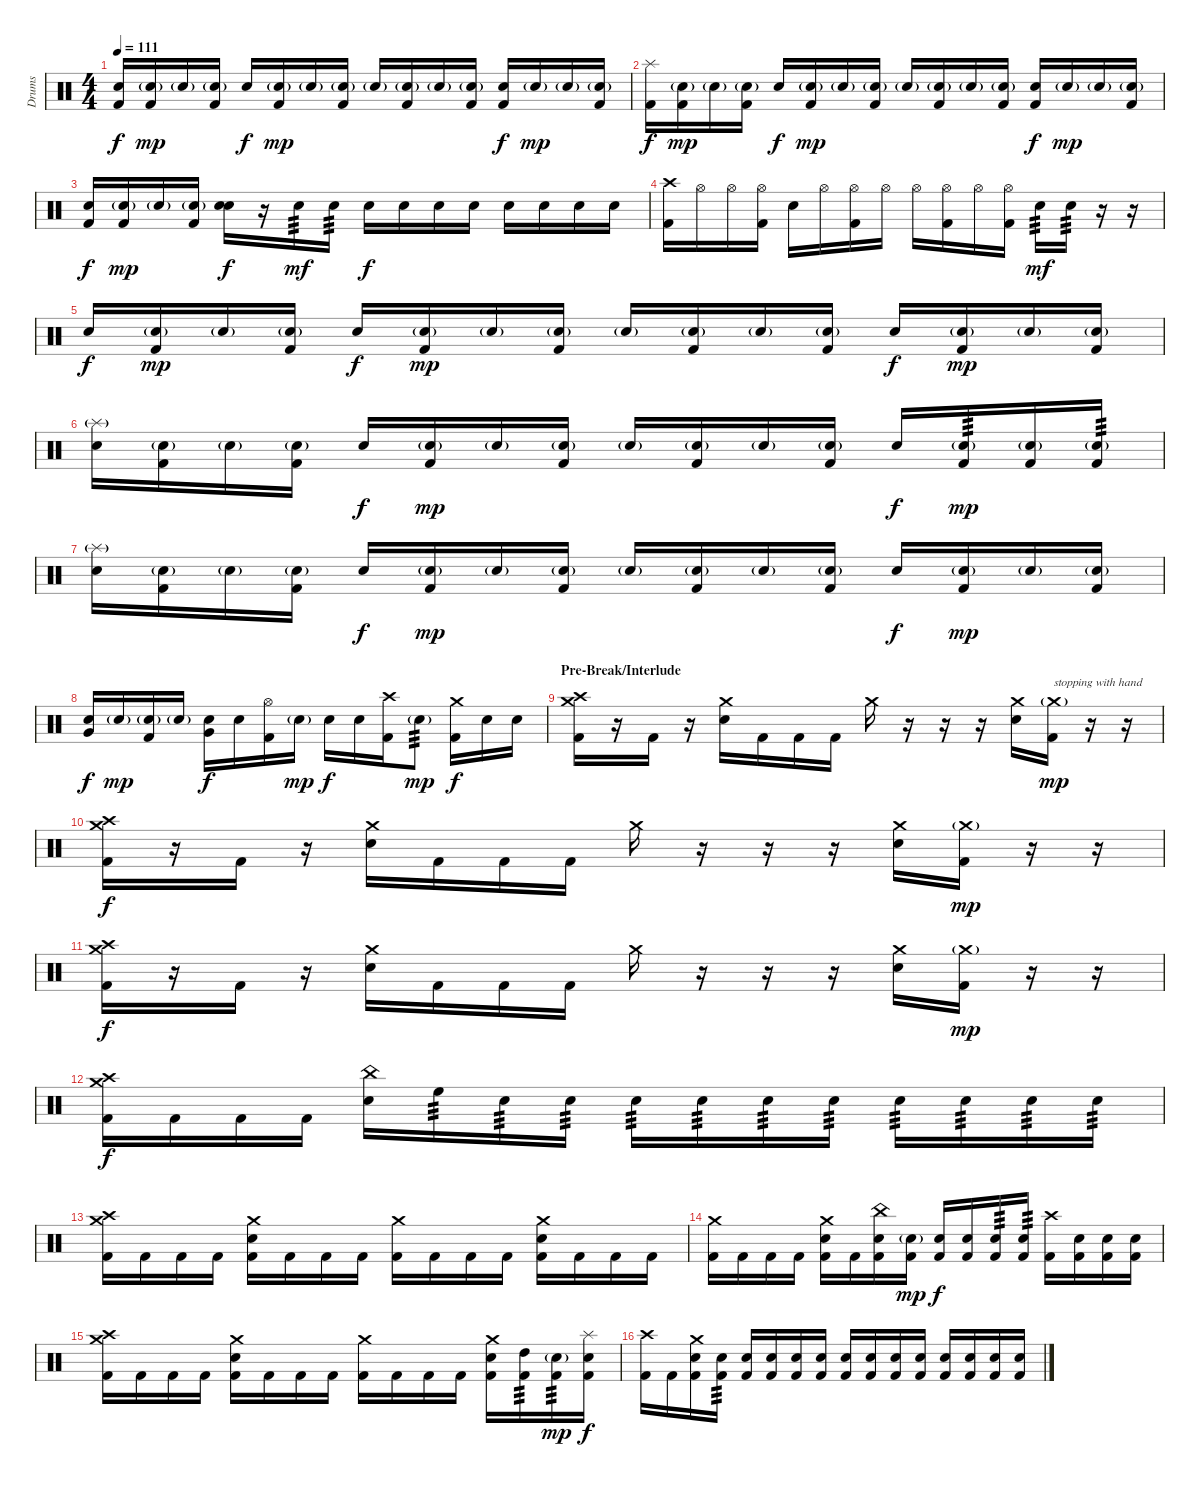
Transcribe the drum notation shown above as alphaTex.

\track ("Drums" "Drums") {instrument percussion}
\staff {score}
\articulation defaults
\ts (4 4)
\tempo 111
\clef neutral
\ks c
("Electric Snare (hit)" "Kick (hit) 2").16{dy f} ("Electric Snare (hit)"{g} "Kick (hit) 2").16{dy mp} "Electric Snare (hit)"{g}.16 ("Electric Snare (hit)"{g} "Kick (hit) 2").16 "Electric Snare (hit)".16{dy f} ("Electric Snare (hit)"{g} "Kick (hit) 2").16{dy mp} "Electric Snare (hit)"{g}.16 ("Electric Snare (hit)"{g} "Kick (hit) 2").16 "Electric Snare (hit)"{g}.16 ("Electric Snare (hit)"{g} "Kick (hit) 2").16 "Electric Snare (hit)"{g}.16 ("Electric Snare (hit)"{g} "Kick (hit) 2").16 ("Electric Snare (hit)" "Kick (hit) 2").16{dy f} "Electric Snare (hit)"{g}.16{dy mp} "Electric Snare (hit)"{g}.16 ("Electric Snare (hit)"{g} "Kick (hit) 2").16 |
("Splash (hit)" "Kick (hit) 2").16{dy f} ("Electric Snare (hit)"{g} "Kick (hit) 2").16{dy mp} "Electric Snare (hit)"{g}.16 ("Electric Snare (hit)"{g} "Kick (hit) 2").16 "Electric Snare (hit)".16{dy f} ("Electric Snare (hit)"{g} "Kick (hit) 2").16{dy mp} "Electric Snare (hit)"{g}.16 ("Electric Snare (hit)"{g} "Kick (hit) 2").16 "Electric Snare (hit)"{g}.16 ("Electric Snare (hit)"{g} "Kick (hit) 2").16 "Electric Snare (hit)"{g}.16 ("Electric Snare (hit)"{g} "Kick (hit) 2").16 ("Electric Snare (hit)" "Kick (hit) 2").16{dy f} "Electric Snare (hit)"{g}.16{dy mp} "Electric Snare (hit)"{g}.16 ("Electric Snare (hit)"{g} "Kick (hit) 2").16 |
("Electric Snare (hit)" "Kick (hit) 2").16{dy f} ("Electric Snare (hit)"{g} "Kick (hit) 2").16{dy mp} "Electric Snare (hit)"{g}.16 ("Electric Snare (hit)"{g} "Kick (hit) 2").16 ("Electric Snare (hit)" "Electric Snare (hit)").16{dy f} r.16 "Electric Snare (hit)".16{tp 3 dy mf} "Electric Snare (hit)".16{tp 3} "Electric Snare (hit)".16{dy f} "Electric Snare (hit)".16 "Electric Snare (hit)".16 "Electric Snare (hit)".16 "Electric Snare (hit)".16 "Electric Snare (hit)".16 "Electric Snare (hit)".16 "Electric Snare (hit)".16 |
("Crash high (hit)" "Kick (hit) 2").16 "Hi-Hat (open)".16 "Hi-Hat (open)".16 ("Hi-Hat (open)" "Kick (hit) 2").16 "Electric Snare (hit)".16 "Hi-Hat (open)".16 ("Hi-Hat (open)" "Kick (hit) 2").16 "Hi-Hat (open)".16 "Hi-Hat (open)".16 ("Hi-Hat (open)" "Kick (hit) 2").16 "Hi-Hat (open)".16 ("Hi-Hat (open)" "Kick (hit) 2").16 "Electric Snare (hit)".16{tp 3 dy mf} "Electric Snare (hit)".16{tp 3} r.16 r.16 |
"Electric Snare (hit)".16{dy f} ("Electric Snare (hit)"{g} "Kick (hit) 2").16{dy mp} "Electric Snare (hit)"{g}.16 ("Electric Snare (hit)"{g} "Kick (hit) 2").16 "Electric Snare (hit)".16{dy f} ("Electric Snare (hit)"{g} "Kick (hit) 2").16{dy mp} "Electric Snare (hit)"{g}.16 ("Electric Snare (hit)"{g} "Kick (hit) 2").16 "Electric Snare (hit)"{g}.16 ("Electric Snare (hit)"{g} "Kick (hit) 2").16 "Electric Snare (hit)"{g}.16 ("Electric Snare (hit)"{g} "Kick (hit) 2").16 "Electric Snare (hit)".16{dy f} ("Electric Snare (hit)"{g} "Kick (hit) 2").16{dy mp} "Electric Snare (hit)"{g}.16 ("Electric Snare (hit)"{g} "Kick (hit) 2").16 |
("Splash (hit)"{g} "Electric Snare (hit)").16 ("Electric Snare (hit)"{g} "Kick (hit) 2").16 "Electric Snare (hit)"{g}.16 ("Electric Snare (hit)"{g} "Kick (hit) 2").16 "Electric Snare (hit)".16{dy f} ("Electric Snare (hit)"{g} "Kick (hit) 2").16{dy mp} "Electric Snare (hit)"{g}.16 ("Electric Snare (hit)"{g} "Kick (hit) 2").16 "Electric Snare (hit)"{g}.16 ("Electric Snare (hit)"{g} "Kick (hit) 2").16 "Electric Snare (hit)"{g}.16 ("Electric Snare (hit)"{g} "Kick (hit) 2").16 "Electric Snare (hit)".16{dy f} ("Electric Snare (hit)"{g} "Kick (hit) 2").16{tp 3 dy mp} ("Electric Snare (hit)"{g} "Kick (hit) 2").16 ("Electric Snare (hit)"{g} "Kick (hit) 2").16{tp 3} |
("Splash (hit)"{g} "Electric Snare (hit)").16 ("Electric Snare (hit)"{g} "Kick (hit) 2").16 "Electric Snare (hit)"{g}.16 ("Electric Snare (hit)"{g} "Kick (hit) 2").16 "Electric Snare (hit)".16{dy f} ("Electric Snare (hit)"{g} "Kick (hit) 2").16{dy mp} "Electric Snare (hit)"{g}.16 ("Electric Snare (hit)"{g} "Kick (hit) 2").16 "Electric Snare (hit)"{g}.16 ("Electric Snare (hit)"{g} "Kick (hit) 2").16 "Electric Snare (hit)"{g}.16 ("Electric Snare (hit)"{g} "Kick (hit) 2").16 "Electric Snare (hit)".16{dy f} ("Electric Snare (hit)"{g} "Kick (hit) 2").16{dy mp} "Electric Snare (hit)"{g}.16 ("Electric Snare (hit)"{g} "Kick (hit) 2").16 |
("Electric Snare (hit)" "Very Low Tom (hit)").16{dy f} "Electric Snare (hit)"{g}.16{dy mp} ("Electric Snare (hit)"{g} "Kick (hit) 2").16 "Electric Snare (hit)"{g}.16 ("Electric Snare (hit)" "Very Low Tom (hit)").16{dy f} "Electric Snare (hit)".16 ("Hi-Hat (open)" "Kick (hit) 2").16 "Electric Snare (hit)"{g}.16{dy mp} "Electric Snare (hit)".16{dy f} "Electric Snare (hit)".16 ("Crash high (hit)" "Kick (hit) 2").16 "Electric Snare (hit)"{g}.8{tp 3 dy mp} ("Crash medium (hit)" "Kick (hit) 2").16{dy f} "Electric Snare (hit)".16 "Electric Snare (hit)".16 |
\section ("" "Pre-Break/Interlude")
("Crash medium (hit)" "Crash high (hit)" "Kick (hit) 2").16 r.16 "Kick (hit) 2".16 r.16 ("Crash medium (hit)" "Electric Snare (hit)").16 "Kick (hit) 2".16 "Kick (hit) 2".16 "Kick (hit) 2".16 "Crash medium (hit)".16 r.16 r.16 r.16 ("Crash medium (hit)" "Electric Snare (hit)").16 ("Crash medium (hit)"{g} "Kick (hit) 2").16{txt "stopping with hand" dy mp} r.16{volume 0} r.16 |
("Crash medium (hit)" "Crash high (hit)" "Kick (hit) 2").16{dy f volume 14} r.16 "Kick (hit) 2".16 r.16 ("Crash medium (hit)" "Electric Snare (hit)").16 "Kick (hit) 2".16 "Kick (hit) 2".16 "Kick (hit) 2".16 "Crash medium (hit)".16 r.16 r.16 r.16 ("Crash medium (hit)" "Electric Snare (hit)").16 ("Crash medium (hit)"{g} "Kick (hit) 2").16{dy mp} r.16{volume 0} r.16 |
("Crash medium (hit)" "Crash high (hit)" "Kick (hit) 2").16{dy f volume 14} r.16 "Kick (hit) 2".16 r.16 ("Crash medium (hit)" "Electric Snare (hit)").16 "Kick (hit) 2".16 "Kick (hit) 2".16 "Kick (hit) 2".16 "Crash medium (hit)".16 r.16 r.16 r.16 ("Crash medium (hit)" "Electric Snare (hit)").16 ("Crash medium (hit)"{g} "Kick (hit) 2").16{dy mp} r.16{volume 0} r.16 |
("Crash medium (hit)" "Crash high (hit)" "Kick (hit) 2").16{dy f volume 14} "Kick (hit) 2".16 "Kick (hit) 2".16 "Kick (hit) 2".16 ("China (hit)" "Electric Snare (hit)").16 "High Floor Tom (hit)".16{tp 3} "Electric Snare (hit)".16{tp 3} "Electric Snare (hit)".16{tp 3} "Electric Snare (hit)".16{tp 3} "Electric Snare (hit)".16{tp 3} "Electric Snare (hit)".16{tp 3} "Electric Snare (hit)".16{tp 3} "Electric Snare (hit)".16{tp 3} "Electric Snare (hit)".16{tp 3} "Electric Snare (hit)".16{tp 3} "Electric Snare (hit)".16{tp 3} |
("Crash medium (hit)" "Crash high (hit)" "Kick (hit) 2").16 "Kick (hit) 2".16 "Kick (hit) 2".16 "Kick (hit) 2".16 ("Crash medium (hit)" "Electric Snare (hit)" "Kick (hit) 2").16 "Kick (hit) 2".16 "Kick (hit) 2".16 "Kick (hit) 2".16 ("Crash medium (hit)" "Kick (hit) 2").16 "Kick (hit) 2".16 "Kick (hit) 2".16 "Kick (hit) 2".16 ("Crash medium (hit)" "Electric Snare (hit)" "Kick (hit) 2").16 "Kick (hit) 2".16 "Kick (hit) 2".16 "Kick (hit) 2".16 |
("Crash medium (hit)" "Kick (hit) 2").16 "Kick (hit) 2".16 "Kick (hit) 2".16 "Kick (hit) 2".16 ("Crash medium (hit)" "Electric Snare (hit)" "Kick (hit) 2").16 "Kick (hit) 2".16 ("China (hit)" "Electric Snare (hit)" "Kick (hit) 2").16 ("Electric Snare (hit)"{g} "Kick (hit) 2").16{dy mp} ("Electric Snare (hit)" "Kick (hit) 2").16{dy f} ("Electric Snare (hit)" "Kick (hit) 2").16 ("Electric Snare (hit)" "Kick (hit) 2").16{tp 3} ("Electric Snare (hit)" "Kick (hit) 2").16{tp 3} ("Crash high (hit)" "Kick (hit) 2").16 ("Electric Snare (hit)" "Kick (hit) 2").16 ("Electric Snare (hit)" "Kick (hit) 2").16 ("Electric Snare (hit)" "Kick (hit) 2").16 |
("Crash medium (hit)" "Crash high (hit)" "Kick (hit) 2").16 "Kick (hit) 2".16 "Kick (hit) 2".16 "Kick (hit) 2".16 ("Crash medium (hit)" "Electric Snare (hit)" "Kick (hit) 2").16 "Kick (hit) 2".16 "Kick (hit) 2".16 "Kick (hit) 2".16 ("Crash medium (hit)" "Kick (hit) 2").16 "Kick (hit) 2".16 "Kick (hit) 2".16 "Kick (hit) 2".16 ("Crash medium (hit)" "Electric Snare (hit)" "Kick (hit) 2").16 ("High Tom (hit)" "Kick (hit) 2").16{tp 3} ("Electric Snare (hit)"{g} "Kick (hit) 2").16{tp 3 dy mp} ("Splash (hit)" "Electric Snare (hit)" "Kick (hit) 2").16{dy f} |
("Crash high (hit)" "Kick (hit) 2").16 "Kick (hit) 2".16 ("Crash medium (hit)" "Electric Snare (hit)" "Kick (hit) 2").16 ("Electric Snare (hit)" "Kick (hit) 2").16{tp 3} ("Electric Snare (hit)" "Kick (hit) 2").16 ("Electric Snare (hit)" "Kick (hit) 2").16 ("Electric Snare (hit)" "Kick (hit) 2").16 ("Electric Snare (hit)" "Kick (hit) 2").16 ("Electric Snare (hit)" "Kick (hit) 2").16 ("Electric Snare (hit)" "Kick (hit) 2").16 ("Electric Snare (hit)" "Kick (hit) 2").16 ("Electric Snare (hit)" "Kick (hit) 2").16 ("Electric Snare (hit)" "Kick (hit) 2").16 ("Electric Snare (hit)" "Kick (hit) 2").16 ("Electric Snare (hit)" "Kick (hit) 2").16 ("Electric Snare (hit)" "Kick (hit) 2").16
